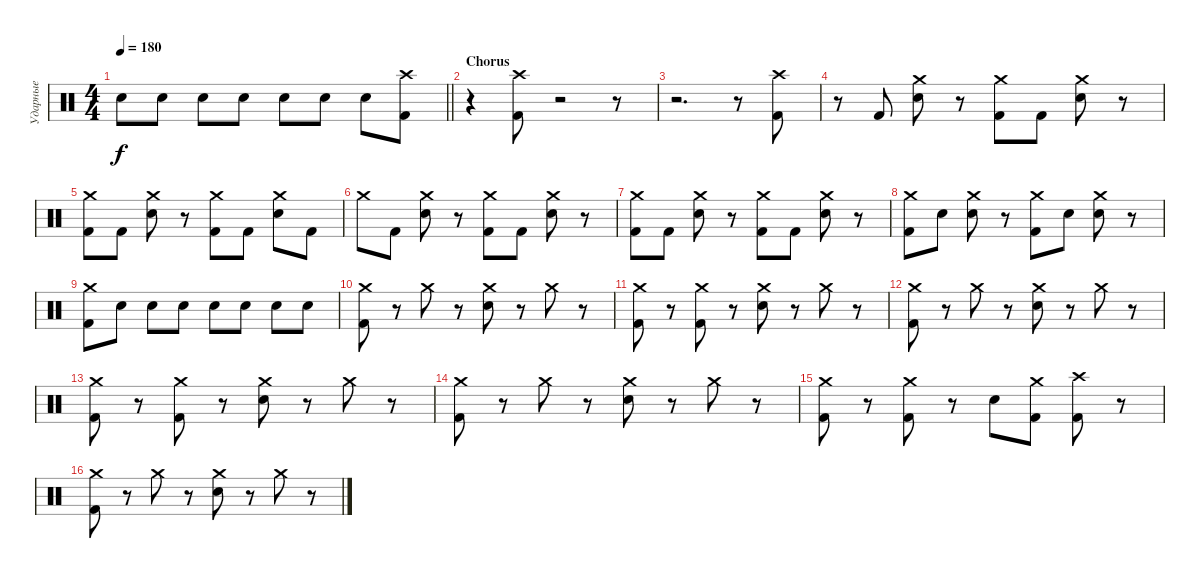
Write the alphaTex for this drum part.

\track ("Ударные" "Ударные") {instrument percussion}
\staff {score}
\articulation defaults
\ts (4 4)
\tempo 180
\clef neutral
\barLineRight lightlight
\ks c "Snare (hit) 2".8{dy f} "Snare (hit) 2".8 "Snare (hit) 2".8 "Snare (hit) 2".8 "Snare (hit) 2".8 "Snare (hit) 2".8 "Snare (hit) 2".8
("Crash high (hit)" "Kick (hit) 2").8 |
\section ("" "Chorus")
r.4 ("Crash high (hit)" "Kick (hit) 2").8 r.2 r.8 |
r.2{d} r.8 ("Crash high (hit)" "Kick (hit) 2").8 |
r.8 "Kick (hit) 2".8 ("Crash medium (hit)" "Snare (hit) 2").8 r.8 ("Crash medium (hit)" "Kick (hit) 2").8 "Kick (hit) 2".8 ("Crash medium (hit)" "Snare (hit) 2").8 r.8 |
("Crash medium (hit)" "Kick (hit) 2").8 "Kick (hit) 2".8 ("Crash medium (hit)" "Snare (hit) 2").8 r.8 ("Crash medium (hit)" "Kick (hit) 2").8 "Kick (hit) 2".8 ("Crash medium (hit)" "Snare (hit) 2").8 "Kick (hit) 2".8 |
"Crash medium (hit)".8 "Kick (hit) 2".8 ("Crash medium (hit)" "Snare (hit) 2").8 r.8 ("Crash medium (hit)" "Kick (hit) 2").8 "Kick (hit) 2".8 ("Crash medium (hit)" "Snare (hit) 2").8 r.8 |
("Crash medium (hit)" "Kick (hit) 2").8 "Kick (hit) 2".8 ("Crash medium (hit)" "Snare (hit) 2").8 r.8 ("Crash medium (hit)" "Kick (hit) 2").8 "Kick (hit) 2".8 ("Crash medium (hit)" "Snare (hit) 2").8 r.8 |
("Crash medium (hit)" "Kick (hit) 2").8 "Snare (hit) 2".8 ("Crash medium (hit)" "Snare (hit) 2").8 r.8 ("Crash medium (hit)" "Kick (hit) 2").8 "Snare (hit) 2".8 ("Crash medium (hit)" "Snare (hit) 2").8 r.8 |
("Crash medium (hit)" "Kick (hit) 2").8 "Snare (hit) 2".8 "Snare (hit) 2".8 "Snare (hit) 2".8 "Snare (hit) 2".8 "Snare (hit) 2".8 "Snare (hit) 2".8 "Snare (hit) 2".8 |
("Crash medium (hit)" "Kick (hit) 2").8 r.8 "Crash medium (hit)".8 r.8 ("Crash medium (hit)" "Snare (hit) 2").8 r.8 "Crash medium (hit)".8 r.8 |
("Crash medium (hit)" "Kick (hit) 2").8 r.8 ("Crash medium (hit)" "Kick (hit) 2").8 r.8 ("Crash medium (hit)" "Snare (hit) 2").8 r.8 "Crash medium (hit)".8 r.8 |
("Crash medium (hit)" "Kick (hit) 2").8 r.8 "Crash medium (hit)".8 r.8 ("Crash medium (hit)" "Snare (hit) 2").8 r.8 "Crash medium (hit)".8 r.8 |
("Crash medium (hit)" "Kick (hit) 2").8 r.8 ("Crash medium (hit)" "Kick (hit) 2").8 r.8 ("Crash medium (hit)" "Snare (hit) 2").8 r.8 "Crash medium (hit)".8 r.8 |
("Crash medium (hit)" "Kick (hit) 2").8 r.8 "Crash medium (hit)".8 r.8 ("Crash medium (hit)" "Snare (hit) 2").8 r.8 "Crash medium (hit)".8 r.8 |
("Crash medium (hit)" "Kick (hit) 2").8 r.8 ("Crash medium (hit)" "Kick (hit) 2").8 r.8 "Snare (hit) 2".8 ("Crash medium (hit)" "Kick (hit) 2").8 ("Crash high (hit)" "Kick (hit) 2").8 r.8 |
("Crash medium (hit)" "Kick (hit) 2").8 r.8 "Crash medium (hit)".8 r.8 ("Crash medium (hit)" "Snare (hit) 2").8 r.8 "Crash medium (hit)".8 r.8
